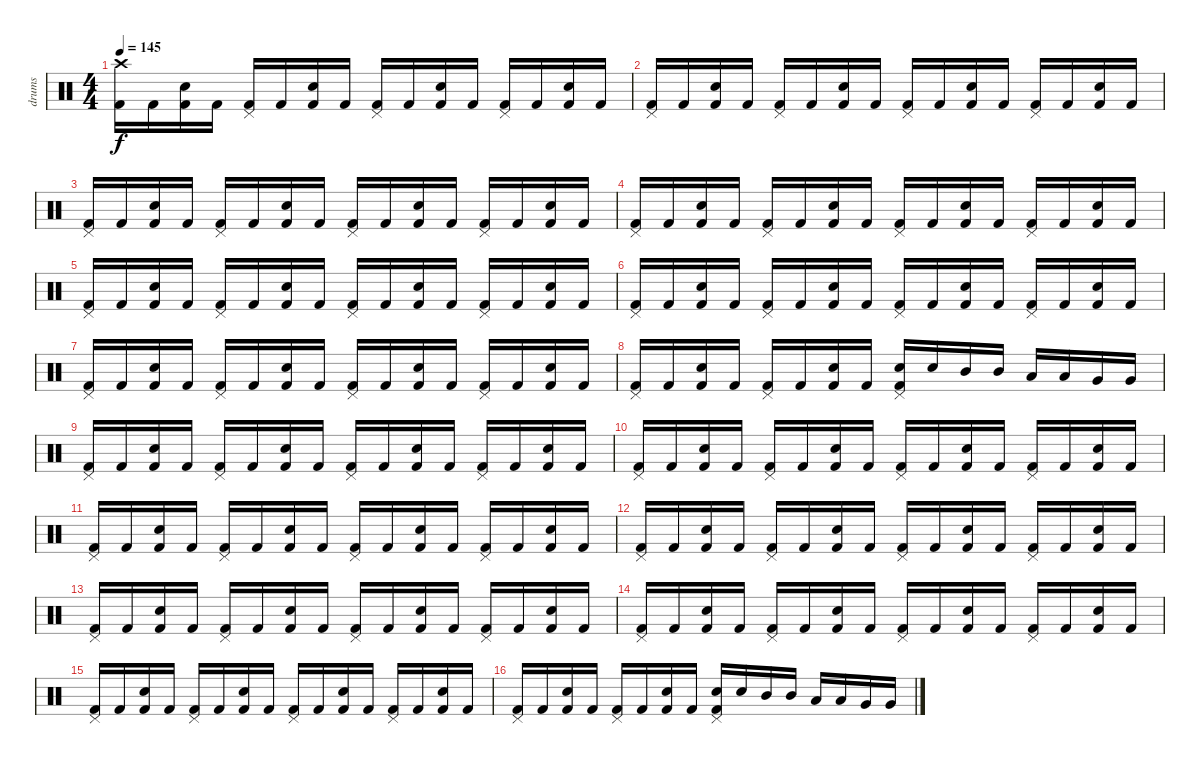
\track ("drums" "drums") {instrument percussion}
\staff {score}
\articulation defaults
\ts (4 4)
\tempo 145
\clef neutral
\ks c
("Crash high (hit)" "Kick (hit) 2").16{dy f} "Kick (hit) 2".16 ("Electric Snare (hit)" "Kick (hit) 2").16 "Kick (hit) 2".16 ("Pedal Hi-Hat (hit)" "Kick (hit) 2").16 "Kick (hit) 2".16 ("Electric Snare (hit)" "Kick (hit) 2").16 "Kick (hit) 2".16 ("Pedal Hi-Hat (hit)" "Kick (hit) 2").16 "Kick (hit) 2".16 ("Electric Snare (hit)" "Kick (hit) 2").16 "Kick (hit) 2".16 ("Pedal Hi-Hat (hit)" "Kick (hit) 2").16 "Kick (hit) 2".16 ("Electric Snare (hit)" "Kick (hit) 2").16 "Kick (hit) 2".16 |
("Pedal Hi-Hat (hit)" "Kick (hit) 2").16 "Kick (hit) 2".16 ("Electric Snare (hit)" "Kick (hit) 2").16 "Kick (hit) 2".16 ("Pedal Hi-Hat (hit)" "Kick (hit) 2").16 "Kick (hit) 2".16 ("Electric Snare (hit)" "Kick (hit) 2").16 "Kick (hit) 2".16 ("Pedal Hi-Hat (hit)" "Kick (hit) 2").16 "Kick (hit) 2".16 ("Electric Snare (hit)" "Kick (hit) 2").16 "Kick (hit) 2".16 ("Pedal Hi-Hat (hit)" "Kick (hit) 2").16 "Kick (hit) 2".16 ("Electric Snare (hit)" "Kick (hit) 2").16 "Kick (hit) 2".16 |
("Pedal Hi-Hat (hit)" "Kick (hit) 2").16 "Kick (hit) 2".16 ("Electric Snare (hit)" "Kick (hit) 2").16 "Kick (hit) 2".16 ("Pedal Hi-Hat (hit)" "Kick (hit) 2").16 "Kick (hit) 2".16 ("Electric Snare (hit)" "Kick (hit) 2").16 "Kick (hit) 2".16 ("Pedal Hi-Hat (hit)" "Kick (hit) 2").16 "Kick (hit) 2".16 ("Electric Snare (hit)" "Kick (hit) 2").16 "Kick (hit) 2".16 ("Pedal Hi-Hat (hit)" "Kick (hit) 2").16 "Kick (hit) 2".16 ("Electric Snare (hit)" "Kick (hit) 2").16 "Kick (hit) 2".16 |
("Pedal Hi-Hat (hit)" "Kick (hit) 2").16 "Kick (hit) 2".16 ("Electric Snare (hit)" "Kick (hit) 2").16 "Kick (hit) 2".16 ("Pedal Hi-Hat (hit)" "Kick (hit) 2").16 "Kick (hit) 2".16 ("Electric Snare (hit)" "Kick (hit) 2").16 "Kick (hit) 2".16 ("Pedal Hi-Hat (hit)" "Kick (hit) 2").16 "Kick (hit) 2".16 ("Electric Snare (hit)" "Kick (hit) 2").16 "Kick (hit) 2".16 ("Pedal Hi-Hat (hit)" "Kick (hit) 2").16 "Kick (hit) 2".16 ("Electric Snare (hit)" "Kick (hit) 2").16 "Kick (hit) 2".16 |
("Pedal Hi-Hat (hit)" "Kick (hit) 2").16 "Kick (hit) 2".16 ("Electric Snare (hit)" "Kick (hit) 2").16 "Kick (hit) 2".16 ("Pedal Hi-Hat (hit)" "Kick (hit) 2").16 "Kick (hit) 2".16 ("Electric Snare (hit)" "Kick (hit) 2").16 "Kick (hit) 2".16 ("Pedal Hi-Hat (hit)" "Kick (hit) 2").16 "Kick (hit) 2".16 ("Electric Snare (hit)" "Kick (hit) 2").16 "Kick (hit) 2".16 ("Pedal Hi-Hat (hit)" "Kick (hit) 2").16 "Kick (hit) 2".16 ("Electric Snare (hit)" "Kick (hit) 2").16 "Kick (hit) 2".16 |
("Pedal Hi-Hat (hit)" "Kick (hit) 2").16 "Kick (hit) 2".16 ("Electric Snare (hit)" "Kick (hit) 2").16 "Kick (hit) 2".16 ("Pedal Hi-Hat (hit)" "Kick (hit) 2").16 "Kick (hit) 2".16 ("Electric Snare (hit)" "Kick (hit) 2").16 "Kick (hit) 2".16 ("Pedal Hi-Hat (hit)" "Kick (hit) 2").16 "Kick (hit) 2".16 ("Electric Snare (hit)" "Kick (hit) 2").16 "Kick (hit) 2".16 ("Pedal Hi-Hat (hit)" "Kick (hit) 2").16 "Kick (hit) 2".16 ("Electric Snare (hit)" "Kick (hit) 2").16 "Kick (hit) 2".16 |
("Pedal Hi-Hat (hit)" "Kick (hit) 2").16 "Kick (hit) 2".16 ("Electric Snare (hit)" "Kick (hit) 2").16 "Kick (hit) 2".16 ("Pedal Hi-Hat (hit)" "Kick (hit) 2").16 "Kick (hit) 2".16 ("Electric Snare (hit)" "Kick (hit) 2").16 "Kick (hit) 2".16 ("Pedal Hi-Hat (hit)" "Kick (hit) 2").16 "Kick (hit) 2".16 ("Electric Snare (hit)" "Kick (hit) 2").16 "Kick (hit) 2".16 ("Pedal Hi-Hat (hit)" "Kick (hit) 2").16 "Kick (hit) 2".16 ("Electric Snare (hit)" "Kick (hit) 2").16 "Kick (hit) 2".16 |
("Pedal Hi-Hat (hit)" "Kick (hit) 2").16 "Kick (hit) 2".16 ("Electric Snare (hit)" "Kick (hit) 2").16 "Kick (hit) 2".16 ("Pedal Hi-Hat (hit)" "Kick (hit) 2").16 "Kick (hit) 2".16 ("Electric Snare (hit)" "Kick (hit) 2").16 "Kick (hit) 2".16 ("Pedal Hi-Hat (hit)" "Snare (hit) 2" "Kick (hit) 2").16 "Snare (hit) 2".16 "Mid Tom (hit)".16 "Mid Tom (hit)".16 "Low Tom (hit)".16 "Low Tom (hit)".16 "Very Low Tom (hit)".16 "Very Low Tom (hit)".16 |
("Pedal Hi-Hat (hit)" "Kick (hit) 2").16 "Kick (hit) 2".16 ("Electric Snare (hit)" "Kick (hit) 2").16 "Kick (hit) 2".16 ("Pedal Hi-Hat (hit)" "Kick (hit) 2").16 "Kick (hit) 2".16 ("Electric Snare (hit)" "Kick (hit) 2").16 "Kick (hit) 2".16 ("Pedal Hi-Hat (hit)" "Kick (hit) 2").16 "Kick (hit) 2".16 ("Electric Snare (hit)" "Kick (hit) 2").16 "Kick (hit) 2".16 ("Pedal Hi-Hat (hit)" "Kick (hit) 2").16 "Kick (hit) 2".16 ("Electric Snare (hit)" "Kick (hit) 2").16 "Kick (hit) 2".16 |
("Pedal Hi-Hat (hit)" "Kick (hit) 2").16 "Kick (hit) 2".16 ("Electric Snare (hit)" "Kick (hit) 2").16 "Kick (hit) 2".16 ("Pedal Hi-Hat (hit)" "Kick (hit) 2").16 "Kick (hit) 2".16 ("Electric Snare (hit)" "Kick (hit) 2").16 "Kick (hit) 2".16 ("Pedal Hi-Hat (hit)" "Kick (hit) 2").16 "Kick (hit) 2".16 ("Electric Snare (hit)" "Kick (hit) 2").16 "Kick (hit) 2".16 ("Pedal Hi-Hat (hit)" "Kick (hit) 2").16 "Kick (hit) 2".16 ("Electric Snare (hit)" "Kick (hit) 2").16 "Kick (hit) 2".16 |
("Pedal Hi-Hat (hit)" "Kick (hit) 2").16 "Kick (hit) 2".16 ("Electric Snare (hit)" "Kick (hit) 2").16 "Kick (hit) 2".16 ("Pedal Hi-Hat (hit)" "Kick (hit) 2").16 "Kick (hit) 2".16 ("Electric Snare (hit)" "Kick (hit) 2").16 "Kick (hit) 2".16 ("Pedal Hi-Hat (hit)" "Kick (hit) 2").16 "Kick (hit) 2".16 ("Electric Snare (hit)" "Kick (hit) 2").16 "Kick (hit) 2".16 ("Pedal Hi-Hat (hit)" "Kick (hit) 2").16 "Kick (hit) 2".16 ("Electric Snare (hit)" "Kick (hit) 2").16 "Kick (hit) 2".16 |
("Pedal Hi-Hat (hit)" "Kick (hit) 2").16 "Kick (hit) 2".16 ("Electric Snare (hit)" "Kick (hit) 2").16 "Kick (hit) 2".16 ("Pedal Hi-Hat (hit)" "Kick (hit) 2").16 "Kick (hit) 2".16 ("Electric Snare (hit)" "Kick (hit) 2").16 "Kick (hit) 2".16 ("Pedal Hi-Hat (hit)" "Kick (hit) 2").16 "Kick (hit) 2".16 ("Electric Snare (hit)" "Kick (hit) 2").16 "Kick (hit) 2".16 ("Pedal Hi-Hat (hit)" "Kick (hit) 2").16 "Kick (hit) 2".16 ("Electric Snare (hit)" "Kick (hit) 2").16 "Kick (hit) 2".16 |
("Pedal Hi-Hat (hit)" "Kick (hit) 2").16 "Kick (hit) 2".16 ("Electric Snare (hit)" "Kick (hit) 2").16 "Kick (hit) 2".16 ("Pedal Hi-Hat (hit)" "Kick (hit) 2").16 "Kick (hit) 2".16 ("Electric Snare (hit)" "Kick (hit) 2").16 "Kick (hit) 2".16 ("Pedal Hi-Hat (hit)" "Kick (hit) 2").16 "Kick (hit) 2".16 ("Electric Snare (hit)" "Kick (hit) 2").16 "Kick (hit) 2".16 ("Pedal Hi-Hat (hit)" "Kick (hit) 2").16 "Kick (hit) 2".16 ("Electric Snare (hit)" "Kick (hit) 2").16 "Kick (hit) 2".16 |
("Pedal Hi-Hat (hit)" "Kick (hit) 2").16 "Kick (hit) 2".16 ("Electric Snare (hit)" "Kick (hit) 2").16 "Kick (hit) 2".16 ("Pedal Hi-Hat (hit)" "Kick (hit) 2").16 "Kick (hit) 2".16 ("Electric Snare (hit)" "Kick (hit) 2").16 "Kick (hit) 2".16 ("Pedal Hi-Hat (hit)" "Kick (hit) 2").16 "Kick (hit) 2".16 ("Electric Snare (hit)" "Kick (hit) 2").16 "Kick (hit) 2".16 ("Pedal Hi-Hat (hit)" "Kick (hit) 2").16 "Kick (hit) 2".16 ("Electric Snare (hit)" "Kick (hit) 2").16 "Kick (hit) 2".16 |
("Pedal Hi-Hat (hit)" "Kick (hit) 2").16 "Kick (hit) 2".16 ("Electric Snare (hit)" "Kick (hit) 2").16 "Kick (hit) 2".16 ("Pedal Hi-Hat (hit)" "Kick (hit) 2").16 "Kick (hit) 2".16 ("Electric Snare (hit)" "Kick (hit) 2").16 "Kick (hit) 2".16 ("Pedal Hi-Hat (hit)" "Kick (hit) 2").16 "Kick (hit) 2".16 ("Electric Snare (hit)" "Kick (hit) 2").16 "Kick (hit) 2".16 ("Pedal Hi-Hat (hit)" "Kick (hit) 2").16 "Kick (hit) 2".16 ("Electric Snare (hit)" "Kick (hit) 2").16 "Kick (hit) 2".16 |
("Pedal Hi-Hat (hit)" "Kick (hit) 2").16 "Kick (hit) 2".16 ("Electric Snare (hit)" "Kick (hit) 2").16 "Kick (hit) 2".16 ("Pedal Hi-Hat (hit)" "Kick (hit) 2").16 "Kick (hit) 2".16 ("Electric Snare (hit)" "Kick (hit) 2").16 "Kick (hit) 2".16 ("Pedal Hi-Hat (hit)" "Snare (hit) 2" "Kick (hit) 2").16 "Snare (hit) 2".16 "Mid Tom (hit)".16 "Mid Tom (hit)".16 "Low Tom (hit)".16 "Low Tom (hit)".16 "Very Low Tom (hit)".16 "Very Low Tom (hit)".16
